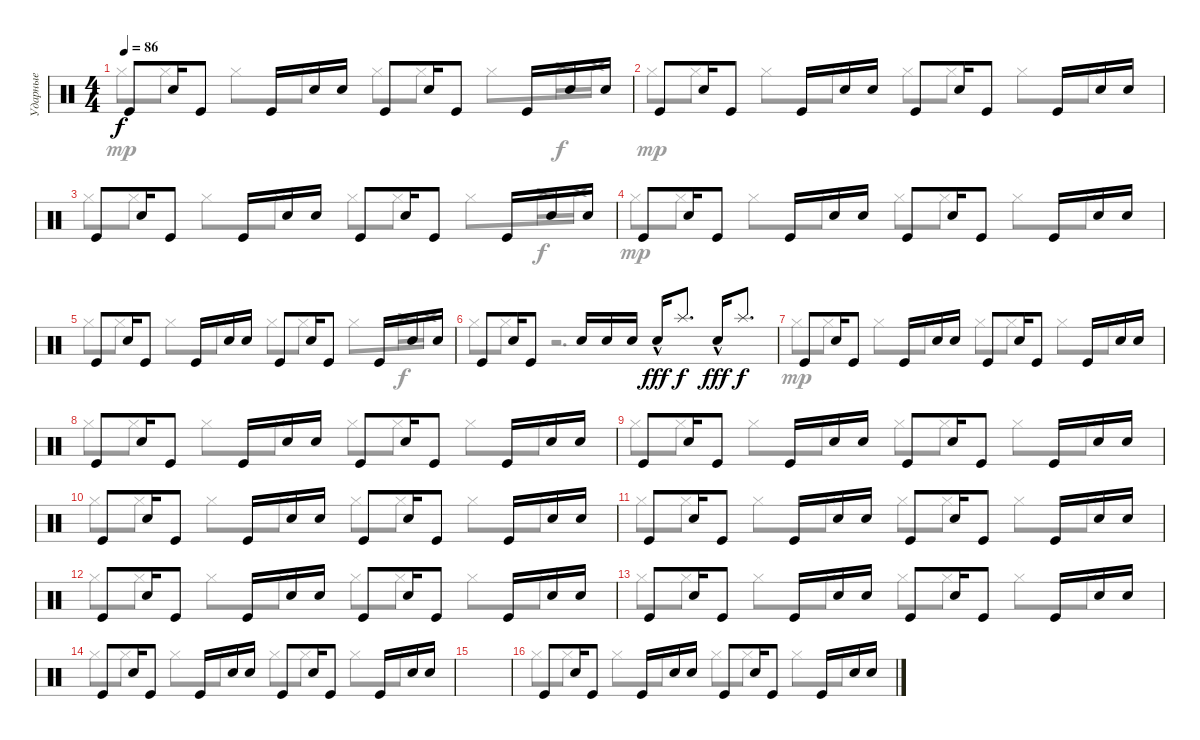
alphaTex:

\track ("Ударные" "Ударные") {instrument percussion}
\staff {score}
\articulation defaults
\voice
\ts (4 4)
\tempo 86
\clef neutral
\ks c "Kick (hit)".8{dy f} "Electric Snare (hit)".16 "Kick (hit)".8 "Kick (hit)".16 "Electric Snare (hit)".16 "Electric Snare (hit)".16 "Kick (hit)".8 "Electric Snare (hit)".16 "Kick (hit)".8 "Kick (hit)".16 "Electric Snare (hit)".16 "Electric Snare (hit)".16
|
"Kick (hit)".8 "Electric Snare (hit)".16 "Kick (hit)".8 "Kick (hit)".16 "Electric Snare (hit)".16 "Electric Snare (hit)".16 "Kick (hit)".8 "Electric Snare (hit)".16 "Kick (hit)".8 "Kick (hit)".16 "Electric Snare (hit)".16 "Electric Snare (hit)".16 |
"Kick (hit)".8 "Electric Snare (hit)".16 "Kick (hit)".8 "Kick (hit)".16 "Electric Snare (hit)".16 "Electric Snare (hit)".16 "Kick (hit)".8 "Electric Snare (hit)".16 "Kick (hit)".8 "Kick (hit)".16 "Electric Snare (hit)".16 "Electric Snare (hit)".16 |
"Kick (hit)".8 "Electric Snare (hit)".16 "Kick (hit)".8 "Kick (hit)".16 "Electric Snare (hit)".16 "Electric Snare (hit)".16 "Kick (hit)".8 "Electric Snare (hit)".16 "Kick (hit)".8 "Kick (hit)".16 "Electric Snare (hit)".16 "Electric Snare (hit)".16 |
"Kick (hit)".8 "Electric Snare (hit)".16 "Kick (hit)".8 "Kick (hit)".16 "Electric Snare (hit)".16 "Electric Snare (hit)".16 "Kick (hit)".8 "Electric Snare (hit)".16 "Kick (hit)".8 "Kick (hit)".16 "Electric Snare (hit)".16 "Electric Snare (hit)".16 |
"Kick (hit)".8 "Electric Snare (hit)".16 "Kick (hit)".8 "Electric Snare (hit)".16 "Electric Snare (hit)".16 "Electric Snare (hit)".16 "Electric Snare (hit)"{hac}.16{dy fff} "Splash (hit)".8{d dy f} "Electric Snare (hit)"{hac}.16{dy fff} "Splash (hit)".8{d dy f} |
"Kick (hit)".8 "Electric Snare (hit)".16 "Kick (hit)".8 "Kick (hit)".16 "Electric Snare (hit)".16 "Electric Snare (hit)".16 "Kick (hit)".8 "Electric Snare (hit)".16 "Kick (hit)".8 "Kick (hit)".16 "Electric Snare (hit)".16 "Electric Snare (hit)".16 |
"Kick (hit)".8 "Electric Snare (hit)".16 "Kick (hit)".8 "Kick (hit)".16 "Electric Snare (hit)".16 "Electric Snare (hit)".16 "Kick (hit)".8 "Electric Snare (hit)".16 "Kick (hit)".8 "Kick (hit)".16 "Electric Snare (hit)".16 "Electric Snare (hit)".16 |
"Kick (hit)".8 "Electric Snare (hit)".16 "Kick (hit)".8 "Kick (hit)".16 "Electric Snare (hit)".16 "Electric Snare (hit)".16 "Kick (hit)".8 "Electric Snare (hit)".16 "Kick (hit)".8 "Kick (hit)".16 "Electric Snare (hit)".16 "Electric Snare (hit)".16 |
"Kick (hit)".8 "Electric Snare (hit)".16 "Kick (hit)".8 "Kick (hit)".16 "Electric Snare (hit)".16 "Electric Snare (hit)".16 "Kick (hit)".8 "Electric Snare (hit)".16 "Kick (hit)".8 "Kick (hit)".16 "Electric Snare (hit)".16 "Electric Snare (hit)".16 |
"Kick (hit)".8 "Electric Snare (hit)".16 "Kick (hit)".8 "Kick (hit)".16 "Electric Snare (hit)".16 "Electric Snare (hit)".16 "Kick (hit)".8 "Electric Snare (hit)".16 "Kick (hit)".8 "Kick (hit)".16 "Electric Snare (hit)".16 "Electric Snare (hit)".16 |
"Kick (hit)".8 "Electric Snare (hit)".16 "Kick (hit)".8 "Kick (hit)".16 "Electric Snare (hit)".16 "Electric Snare (hit)".16 "Kick (hit)".8 "Electric Snare (hit)".16 "Kick (hit)".8 "Kick (hit)".16 "Electric Snare (hit)".16 "Electric Snare (hit)".16 |
"Kick (hit)".8 "Electric Snare (hit)".16 "Kick (hit)".8 "Kick (hit)".16 "Electric Snare (hit)".16 "Electric Snare (hit)".16 "Kick (hit)".8 "Electric Snare (hit)".16 "Kick (hit)".8 "Kick (hit)".16 "Electric Snare (hit)".16 "Electric Snare (hit)".16 |
"Kick (hit)".8 "Electric Snare (hit)".16 "Kick (hit)".8 "Kick (hit)".16 "Electric Snare (hit)".16 "Electric Snare (hit)".16 "Kick (hit)".8 "Electric Snare (hit)".16 "Kick (hit)".8 "Kick (hit)".16 "Electric Snare (hit)".16 "Electric Snare (hit)".16 |
|
"Kick (hit)".8 "Electric Snare (hit)".16 "Kick (hit)".8 "Kick (hit)".16 "Electric Snare (hit)".16 "Electric Snare (hit)".16 "Kick (hit)".8 "Electric Snare (hit)".16 "Kick (hit)".8 "Kick (hit)".16 "Electric Snare (hit)".16 "Electric Snare (hit)".16
\voice
\clef neutral
\ottava regular
\simile none
\ks c "Hi-Hat (closed)".8{dy mp} "Hi-Hat (closed)".8 "Hi-Hat (closed)".8 "Hi-Hat (closed)".8 "Hi-Hat (closed)".8 "Hi-Hat (closed)".8 "Hi-Hat (closed)".8 "Crash high (hit)".16{dy f} "Crash high (hit)".16
|
"Hi-Hat (closed)".8{dy mp} "Hi-Hat (closed)".8 "Hi-Hat (closed)".8 "Hi-Hat (closed)".8 "Hi-Hat (closed)".8 "Hi-Hat (closed)".8 "Hi-Hat (closed)".8 "Hi-Hat (closed)".8 |
"Hi-Hat (closed)".8 "Hi-Hat (closed)".8 "Hi-Hat (closed)".8 "Hi-Hat (closed)".8 "Hi-Hat (closed)".8 "Hi-Hat (closed)".8 "Hi-Hat (closed)".8 "Crash high (hit)".16{dy f} "Crash high (hit)".16 |
"Hi-Hat (closed)".8{dy mp} "Hi-Hat (closed)".8 "Hi-Hat (closed)".8 "Hi-Hat (closed)".8 "Hi-Hat (closed)".8 "Hi-Hat (closed)".8 "Hi-Hat (closed)".8 "Hi-Hat (closed)".8 |
"Hi-Hat (closed)".8 "Hi-Hat (closed)".8 "Hi-Hat (closed)".8 "Hi-Hat (closed)".8 "Hi-Hat (closed)".8 "Hi-Hat (closed)".8 "Hi-Hat (closed)".8 "Crash high (hit)".16{dy f} "Crash high (hit)".16 |
"Hi-Hat (closed)".8 "Hi-Hat (closed)".8 r.2{d} |
"Hi-Hat (closed)".8{dy mp} "Hi-Hat (closed)".8 "Hi-Hat (closed)".8 "Hi-Hat (closed)".8 "Hi-Hat (closed)".8 "Hi-Hat (closed)".8 "Hi-Hat (closed)".8 "Hi-Hat (closed)".8 |
"Hi-Hat (closed)".8 "Hi-Hat (closed)".8 "Hi-Hat (closed)".8 "Hi-Hat (closed)".8 "Hi-Hat (closed)".8 "Hi-Hat (closed)".8 "Hi-Hat (closed)".8 "Hi-Hat (closed)".8 |
"Hi-Hat (closed)".8 "Hi-Hat (closed)".8 "Hi-Hat (closed)".8 "Hi-Hat (closed)".8 "Hi-Hat (closed)".8 "Hi-Hat (closed)".8 "Hi-Hat (closed)".8 "Hi-Hat (closed)".8 |
"Hi-Hat (closed)".8 "Hi-Hat (closed)".8 "Hi-Hat (closed)".8 "Hi-Hat (closed)".8 "Hi-Hat (closed)".8 "Hi-Hat (closed)".8 "Hi-Hat (closed)".8 "Hi-Hat (closed)".8 |
"Hi-Hat (closed)".8 "Hi-Hat (closed)".8 "Hi-Hat (closed)".8 "Hi-Hat (closed)".8 "Hi-Hat (closed)".8 "Hi-Hat (closed)".8 "Hi-Hat (closed)".8 "Hi-Hat (closed)".8 |
"Hi-Hat (closed)".8 "Hi-Hat (closed)".8 "Hi-Hat (closed)".8 "Hi-Hat (closed)".8 "Hi-Hat (closed)".8 "Hi-Hat (closed)".8 "Hi-Hat (closed)".8 "Hi-Hat (closed)".8 |
"Hi-Hat (closed)".8 "Hi-Hat (closed)".8 "Hi-Hat (closed)".8 "Hi-Hat (closed)".8 "Hi-Hat (closed)".8 "Hi-Hat (closed)".8 "Hi-Hat (closed)".8 "Hi-Hat (closed)".8 |
"Hi-Hat (closed)".8 "Hi-Hat (closed)".8 "Hi-Hat (closed)".8 "Hi-Hat (closed)".8 "Hi-Hat (closed)".8 "Hi-Hat (closed)".8 "Hi-Hat (closed)".8 "Hi-Hat (closed)".8 |
|
"Hi-Hat (closed)".8 "Hi-Hat (closed)".8 "Hi-Hat (closed)".8 "Hi-Hat (closed)".8 "Hi-Hat (closed)".8 "Hi-Hat (closed)".8 "Hi-Hat (closed)".8 "Hi-Hat (closed)".8
